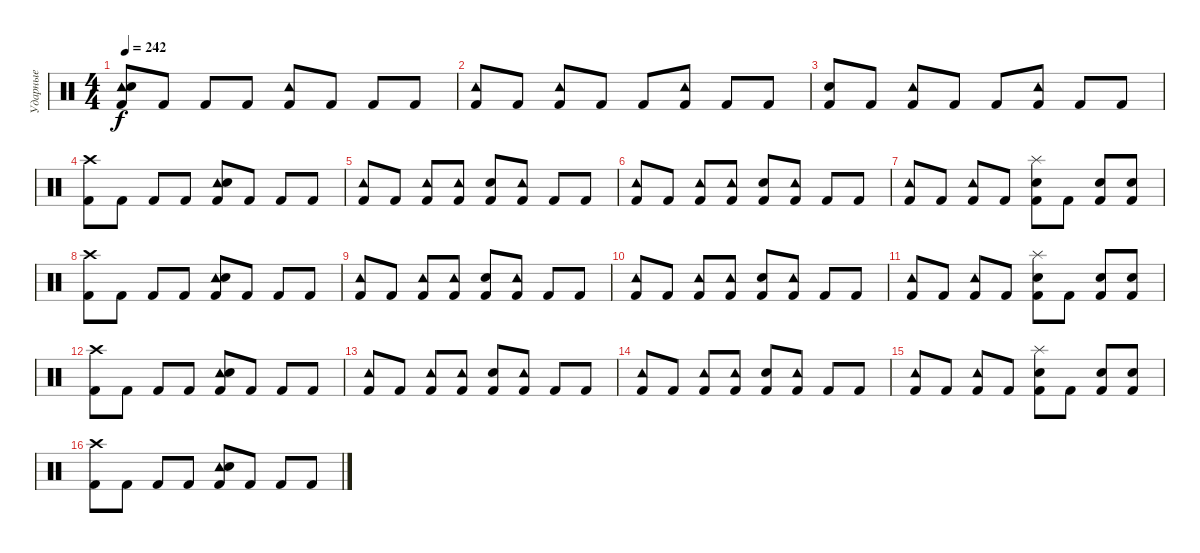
\track ("Ударные" "Ударные") {instrument percussion}
\staff {score}
\articulation defaults
\ts (4 4)
\tempo 242
\clef neutral
\ks c
("Tambourine (hit)" "Electric Snare (hit)" "Kick (hit) 2").8{dy f} "Kick (hit) 2".8 "Kick (hit) 2".8 "Kick (hit) 2".8 ("Tambourine (hit)" "Kick (hit) 2").8 "Kick (hit) 2".8 "Kick (hit) 2".8 "Kick (hit) 2".8 |
("Tambourine (hit)" "Kick (hit) 2").8 "Kick (hit) 2".8 ("Tambourine (hit)" "Kick (hit) 2").8 "Kick (hit) 2".8 "Kick (hit) 2".8 ("Tambourine (hit)" "Kick (hit) 2").8 "Kick (hit) 2".8 "Kick (hit) 2".8 |
("Electric Snare (hit)" "Kick (hit) 2").8 "Kick (hit) 2".8 ("Tambourine (hit)" "Kick (hit) 2").8 "Kick (hit) 2".8 "Kick (hit) 2".8 ("Tambourine (hit)" "Kick (hit) 2").8 "Kick (hit) 2".8 "Kick (hit) 2".8 |
("Crash high (hit)" "Kick (hit) 2").8 "Kick (hit) 2".8 "Kick (hit) 2".8 "Kick (hit) 2".8 ("Tambourine (hit)" "Electric Snare (hit)" "Kick (hit) 2").8 "Kick (hit) 2".8 "Kick (hit) 2".8 "Kick (hit) 2".8 |
("Tambourine (hit)" "Kick (hit) 2").8 "Kick (hit) 2".8 ("Tambourine (hit)" "Kick (hit) 2").8 ("Tambourine (hit)" "Kick (hit) 2").8 ("Electric Snare (hit)" "Kick (hit) 2").8 ("Tambourine (hit)" "Kick (hit) 2").8 "Kick (hit) 2".8 "Kick (hit) 2".8 |
("Tambourine (hit)" "Kick (hit) 2").8 "Kick (hit) 2".8 ("Tambourine (hit)" "Kick (hit) 2").8 ("Tambourine (hit)" "Kick (hit) 2").8 ("Electric Snare (hit)" "Kick (hit) 2").8 ("Tambourine (hit)" "Kick (hit) 2").8 "Kick (hit) 2".8 "Kick (hit) 2".8 |
("Tambourine (hit)" "Kick (hit) 2").8 "Kick (hit) 2".8 ("Tambourine (hit)" "Kick (hit) 2").8 "Kick (hit) 2".8 ("Splash (hit)" "Electric Snare (hit)" "Kick (hit) 2").8 "Kick (hit) 2".8 ("Electric Snare (hit)" "Kick (hit) 2").8 ("Electric Snare (hit)" "Kick (hit) 2").8 |
("Crash high (hit)" "Kick (hit) 2").8 "Kick (hit) 2".8 "Kick (hit) 2".8 "Kick (hit) 2".8 ("Tambourine (hit)" "Electric Snare (hit)" "Kick (hit) 2").8 "Kick (hit) 2".8 "Kick (hit) 2".8 "Kick (hit) 2".8 |
("Tambourine (hit)" "Kick (hit) 2").8 "Kick (hit) 2".8 ("Tambourine (hit)" "Kick (hit) 2").8 ("Tambourine (hit)" "Kick (hit) 2").8 ("Electric Snare (hit)" "Kick (hit) 2").8 ("Tambourine (hit)" "Kick (hit) 2").8 "Kick (hit) 2".8 "Kick (hit) 2".8 |
("Tambourine (hit)" "Kick (hit) 2").8 "Kick (hit) 2".8 ("Tambourine (hit)" "Kick (hit) 2").8 ("Tambourine (hit)" "Kick (hit) 2").8 ("Electric Snare (hit)" "Kick (hit) 2").8 ("Tambourine (hit)" "Kick (hit) 2").8 "Kick (hit) 2".8 "Kick (hit) 2".8 |
("Tambourine (hit)" "Kick (hit) 2").8 "Kick (hit) 2".8 ("Tambourine (hit)" "Kick (hit) 2").8 "Kick (hit) 2".8 ("Splash (hit)" "Electric Snare (hit)" "Kick (hit) 2").8 "Kick (hit) 2".8 ("Electric Snare (hit)" "Kick (hit) 2").8 ("Electric Snare (hit)" "Kick (hit) 2").8 |
("Crash high (hit)" "Kick (hit) 2").8 "Kick (hit) 2".8 "Kick (hit) 2".8 "Kick (hit) 2".8 ("Tambourine (hit)" "Electric Snare (hit)" "Kick (hit) 2").8 "Kick (hit) 2".8 "Kick (hit) 2".8 "Kick (hit) 2".8 |
("Tambourine (hit)" "Kick (hit) 2").8 "Kick (hit) 2".8 ("Tambourine (hit)" "Kick (hit) 2").8 ("Tambourine (hit)" "Kick (hit) 2").8 ("Electric Snare (hit)" "Kick (hit) 2").8 ("Tambourine (hit)" "Kick (hit) 2").8 "Kick (hit) 2".8 "Kick (hit) 2".8 |
("Tambourine (hit)" "Kick (hit) 2").8 "Kick (hit) 2".8 ("Tambourine (hit)" "Kick (hit) 2").8 ("Tambourine (hit)" "Kick (hit) 2").8 ("Electric Snare (hit)" "Kick (hit) 2").8 ("Tambourine (hit)" "Kick (hit) 2").8 "Kick (hit) 2".8 "Kick (hit) 2".8 |
("Tambourine (hit)" "Kick (hit) 2").8 "Kick (hit) 2".8 ("Tambourine (hit)" "Kick (hit) 2").8 "Kick (hit) 2".8 ("Splash (hit)" "Electric Snare (hit)" "Kick (hit) 2").8 "Kick (hit) 2".8 ("Electric Snare (hit)" "Kick (hit) 2").8 ("Electric Snare (hit)" "Kick (hit) 2").8 |
("Crash high (hit)" "Kick (hit) 2").8 "Kick (hit) 2".8 "Kick (hit) 2".8 "Kick (hit) 2".8 ("Tambourine (hit)" "Electric Snare (hit)" "Kick (hit) 2").8 "Kick (hit) 2".8 "Kick (hit) 2".8 "Kick (hit) 2".8
